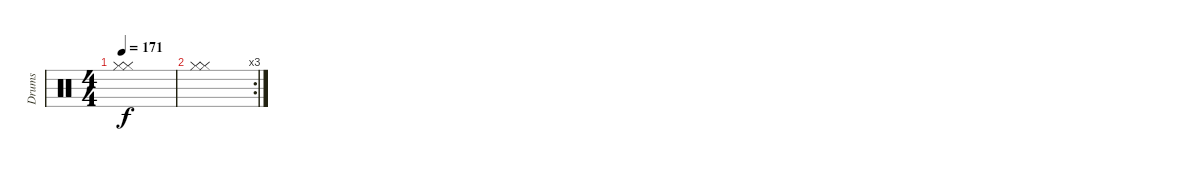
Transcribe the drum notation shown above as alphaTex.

\track ("Drums" "Drums") {instrument percussion}
\staff {score}
\articulation defaults
\ts (4 4)
\tempo 171
\clef neutral
\ks c
("Hi-Hat (closed)" "Hi-Hat (closed)").1{dy f} |
\rc 3
("Hi-Hat (closed)" "Hi-Hat (closed)").1
